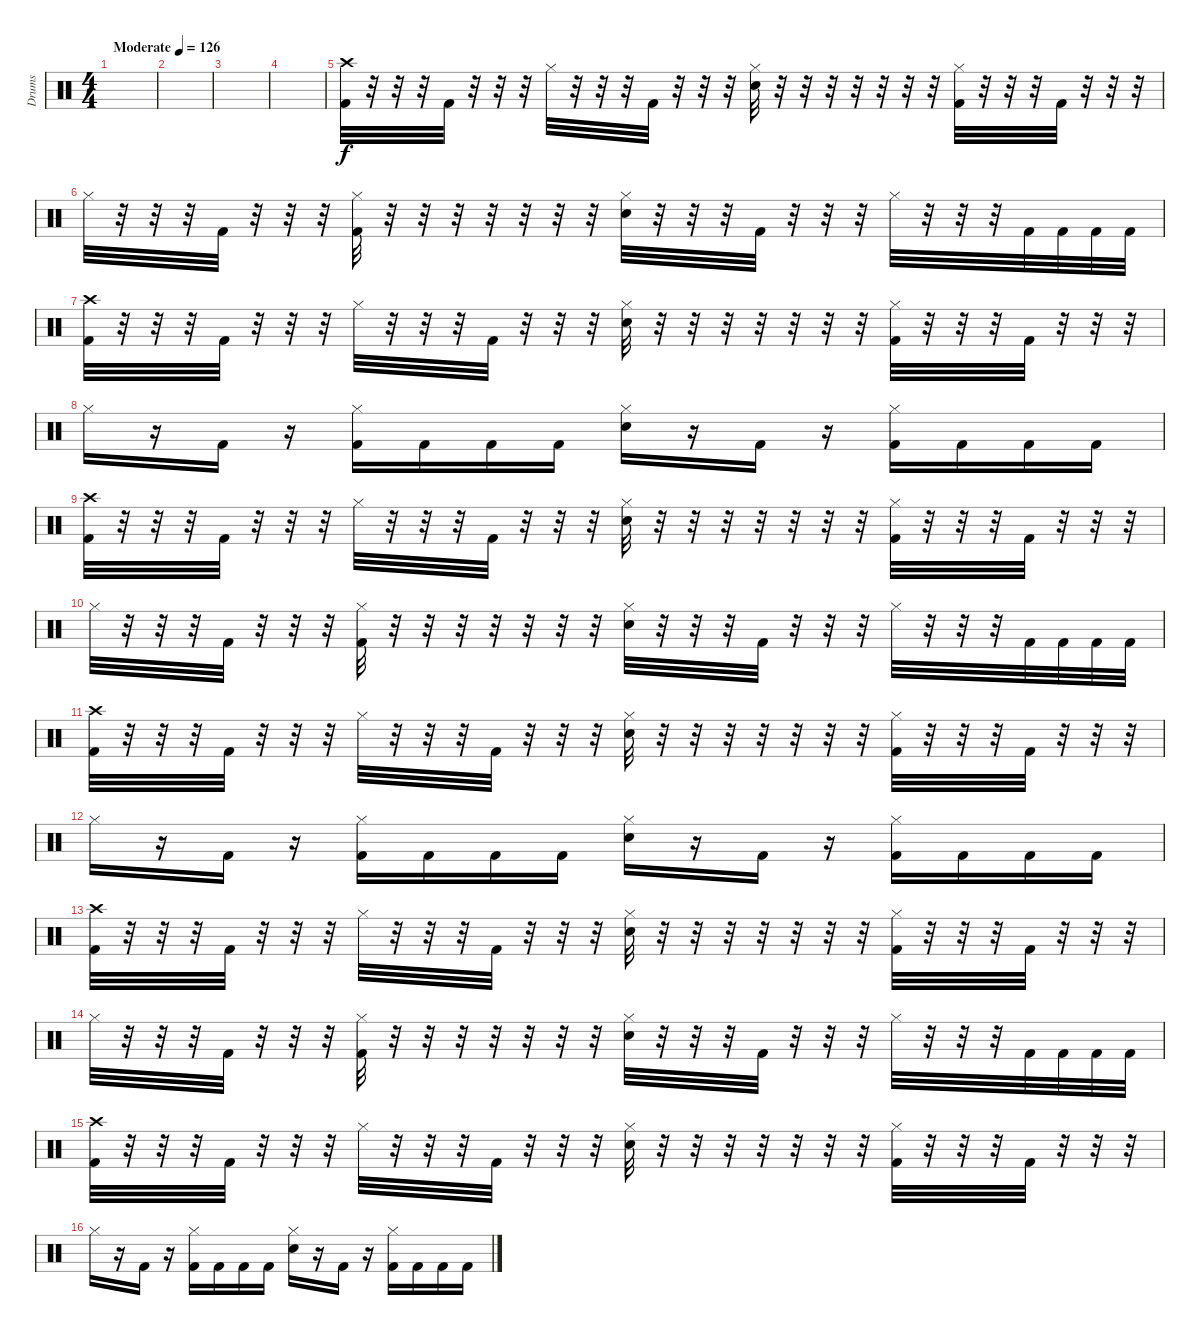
\track ("Drums" "Drums") {instrument percussion}
\staff {score}
\articulation defaults
\ts (4 4)
\tempo (126 "Moderate")
\clef neutral
\ks c
|
|
|
|
("Crash high (hit)" "Kick (hit) 2").32 r.32 r.32 r.32 "Kick (hit) 2".32 r.32 r.32 r.32 "Hi-Hat (closed)".32 r.32 r.32 r.32 "Kick (hit) 2".32 r.32 r.32 r.32 ("Hi-Hat (closed)" "Electric Snare (hit)").32 r.32 r.32 r.32 r.32 r.32 r.32 r.32 ("Hi-Hat (closed)" "Kick (hit) 2").32 r.32 r.32 r.32 "Kick (hit) 2".32 r.32 r.32 r.32 |
"Hi-Hat (closed)".32 r.32 r.32 r.32 "Kick (hit) 2".32 r.32 r.32 r.32 ("Hi-Hat (closed)" "Kick (hit) 2").32 r.32 r.32 r.32 r.32 r.32 r.32 r.32 ("Hi-Hat (closed)" "Electric Snare (hit)").32 r.32 r.32 r.32 "Kick (hit) 2".32 r.32 r.32 r.32 "Hi-Hat (closed)".32 r.32 r.32 r.32 "Kick (hit) 2".32 "Kick (hit) 2".32 "Kick (hit) 2".32 "Kick (hit) 2".32 |
("Crash high (hit)" "Kick (hit) 2").32 r.32 r.32 r.32 "Kick (hit) 2".32 r.32 r.32 r.32 "Hi-Hat (closed)".32 r.32 r.32 r.32 "Kick (hit) 2".32 r.32 r.32 r.32 ("Hi-Hat (closed)" "Electric Snare (hit)").32 r.32 r.32 r.32 r.32 r.32 r.32 r.32 ("Hi-Hat (closed)" "Kick (hit) 2").32 r.32 r.32 r.32 "Kick (hit) 2".32 r.32 r.32 r.32 |
"Hi-Hat (closed)".16 r.16 "Kick (hit) 2".16 r.16 ("Hi-Hat (closed)" "Kick (hit) 2").16 "Kick (hit) 2".16 "Kick (hit) 2".16 "Kick (hit) 2".16 ("Hi-Hat (closed)" "Electric Snare (hit)").16 r.16 "Kick (hit) 2".16 r.16 ("Hi-Hat (closed)" "Kick (hit) 2").16 "Kick (hit) 2".16 "Kick (hit) 2".16 "Kick (hit) 2".16 |
("Crash high (hit)" "Kick (hit) 2").32 r.32 r.32 r.32 "Kick (hit) 2".32 r.32 r.32 r.32 "Hi-Hat (closed)".32 r.32 r.32 r.32 "Kick (hit) 2".32 r.32 r.32 r.32 ("Hi-Hat (closed)" "Electric Snare (hit)").32 r.32 r.32 r.32 r.32 r.32 r.32 r.32 ("Hi-Hat (closed)" "Kick (hit) 2").32 r.32 r.32 r.32 "Kick (hit) 2".32 r.32 r.32 r.32 |
"Hi-Hat (closed)".32 r.32 r.32 r.32 "Kick (hit) 2".32 r.32 r.32 r.32 ("Hi-Hat (closed)" "Kick (hit) 2").32 r.32 r.32 r.32 r.32 r.32 r.32 r.32 ("Hi-Hat (closed)" "Electric Snare (hit)").32 r.32 r.32 r.32 "Kick (hit) 2".32 r.32 r.32 r.32 "Hi-Hat (closed)".32 r.32 r.32 r.32 "Kick (hit) 2".32 "Kick (hit) 2".32 "Kick (hit) 2".32 "Kick (hit) 2".32 |
("Crash high (hit)" "Kick (hit) 2").32 r.32 r.32 r.32 "Kick (hit) 2".32 r.32 r.32 r.32 "Hi-Hat (closed)".32 r.32 r.32 r.32 "Kick (hit) 2".32 r.32 r.32 r.32 ("Hi-Hat (closed)" "Electric Snare (hit)").32 r.32 r.32 r.32 r.32 r.32 r.32 r.32 ("Hi-Hat (closed)" "Kick (hit) 2").32 r.32 r.32 r.32 "Kick (hit) 2".32 r.32 r.32 r.32 |
"Hi-Hat (closed)".16 r.16 "Kick (hit) 2".16 r.16 ("Hi-Hat (closed)" "Kick (hit) 2").16 "Kick (hit) 2".16 "Kick (hit) 2".16 "Kick (hit) 2".16 ("Hi-Hat (closed)" "Electric Snare (hit)").16 r.16 "Kick (hit) 2".16 r.16 ("Hi-Hat (closed)" "Kick (hit) 2").16 "Kick (hit) 2".16 "Kick (hit) 2".16 "Kick (hit) 2".16 |
("Crash high (hit)" "Kick (hit) 2").32 r.32 r.32 r.32 "Kick (hit) 2".32 r.32 r.32 r.32 "Hi-Hat (closed)".32 r.32 r.32 r.32 "Kick (hit) 2".32 r.32 r.32 r.32 ("Hi-Hat (closed)" "Electric Snare (hit)").32 r.32 r.32 r.32 r.32 r.32 r.32 r.32 ("Hi-Hat (closed)" "Kick (hit) 2").32 r.32 r.32 r.32 "Kick (hit) 2".32 r.32 r.32 r.32 |
"Hi-Hat (closed)".32 r.32 r.32 r.32 "Kick (hit) 2".32 r.32 r.32 r.32 ("Hi-Hat (closed)" "Kick (hit) 2").32 r.32 r.32 r.32 r.32 r.32 r.32 r.32 ("Hi-Hat (closed)" "Electric Snare (hit)").32 r.32 r.32 r.32 "Kick (hit) 2".32 r.32 r.32 r.32 "Hi-Hat (closed)".32 r.32 r.32 r.32 "Kick (hit) 2".32 "Kick (hit) 2".32 "Kick (hit) 2".32 "Kick (hit) 2".32 |
("Crash high (hit)" "Kick (hit) 2").32 r.32 r.32 r.32 "Kick (hit) 2".32 r.32 r.32 r.32 "Hi-Hat (closed)".32 r.32 r.32 r.32 "Kick (hit) 2".32 r.32 r.32 r.32 ("Hi-Hat (closed)" "Electric Snare (hit)").32 r.32 r.32 r.32 r.32 r.32 r.32 r.32 ("Hi-Hat (closed)" "Kick (hit) 2").32 r.32 r.32 r.32 "Kick (hit) 2".32 r.32 r.32 r.32 |
"Hi-Hat (closed)".16 r.16 "Kick (hit) 2".16 r.16 ("Hi-Hat (closed)" "Kick (hit) 2").16 "Kick (hit) 2".16 "Kick (hit) 2".16 "Kick (hit) 2".16 ("Hi-Hat (closed)" "Electric Snare (hit)").16 r.16 "Kick (hit) 2".16 r.16 ("Hi-Hat (closed)" "Kick (hit) 2").16 "Kick (hit) 2".16 "Kick (hit) 2".16 "Kick (hit) 2".16
